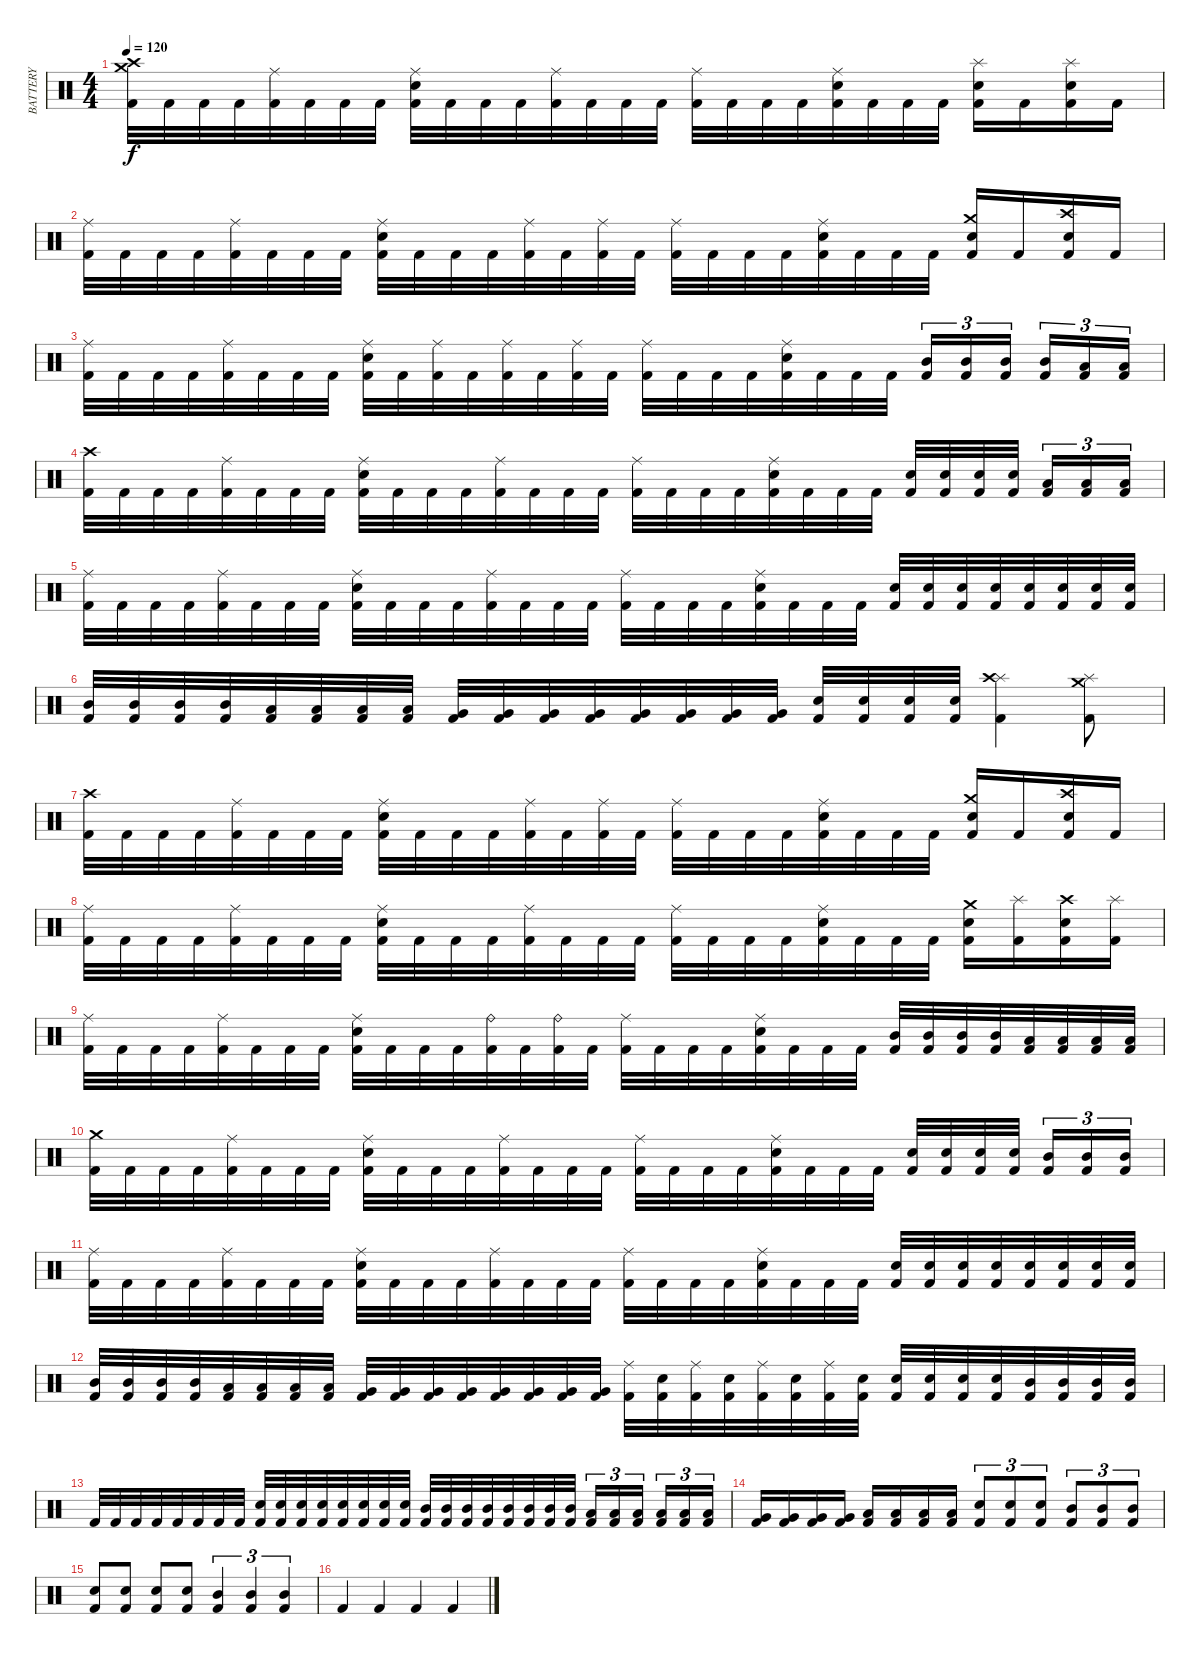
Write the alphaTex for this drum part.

\track ("BATTERY" "BATTERY") {instrument percussion}
\staff {score}
\articulation defaults
\ts (4 4)
\tempo 120
\clef neutral
\ks c
("Kick (hit) 2" "Crash medium (hit)" "Crash high (hit)").32{dy f} "Kick (hit) 2".32 "Kick (hit) 2".32 "Kick (hit) 2".32 ("Kick (hit) 2" "Ride (middle)").32 "Kick (hit) 2".32 "Kick (hit) 2".32 "Kick (hit) 2".32 ("Kick (hit) 2" "Snare (hit) 2" "Ride (middle)").32 "Kick (hit) 2".32 "Kick (hit) 2".32 "Kick (hit) 2".32 ("Kick (hit) 2" "Ride (middle)").32 "Kick (hit) 2".32 "Kick (hit) 2".32 "Kick (hit) 2".32 ("Kick (hit) 2" "Ride (middle)").32 "Kick (hit) 2".32 "Kick (hit) 2".32 "Kick (hit) 2".32 ("Kick (hit) 2" "Snare (hit) 2" "Ride (middle)").32 "Kick (hit) 2".32 "Kick (hit) 2".32 "Kick (hit) 2".32 ("Kick (hit) 2" "Snare (hit) 2" "Splash (hit)").16 "Kick (hit) 2".16 ("Kick (hit) 2" "Snare (hit) 2" "Splash (hit)").16 "Kick (hit) 2".16 |
("Kick (hit) 2" "Ride (middle)").32 "Kick (hit) 2".32 "Kick (hit) 2".32 "Kick (hit) 2".32 ("Kick (hit) 2" "Ride (middle)").32 "Kick (hit) 2".32 "Kick (hit) 2".32 "Kick (hit) 2".32 ("Kick (hit) 2" "Snare (hit) 2" "Ride (middle)").32 "Kick (hit) 2".32 "Kick (hit) 2".32 "Kick (hit) 2".32 ("Kick (hit) 2" "Ride (middle)").32 "Kick (hit) 2".32 ("Kick (hit) 2" "Ride (middle)").32 "Kick (hit) 2".32 ("Kick (hit) 2" "Ride (middle)").32 "Kick (hit) 2".32 "Kick (hit) 2".32 "Kick (hit) 2".32 ("Kick (hit) 2" "Snare (hit) 2" "Ride (middle)").32 "Kick (hit) 2".32 "Kick (hit) 2".32 "Kick (hit) 2".32 ("Kick (hit) 2" "Snare (hit) 2" "Crash medium (hit)").16 "Kick (hit) 2".16 ("Kick (hit) 2" "Snare (hit) 2" "Crash high (hit)").16 "Kick (hit) 2".16 |
("Kick (hit) 2" "Ride (middle)").32 "Kick (hit) 2".32 "Kick (hit) 2".32 "Kick (hit) 2".32 ("Kick (hit) 2" "Ride (middle)").32 "Kick (hit) 2".32 "Kick (hit) 2".32 "Kick (hit) 2".32 ("Kick (hit) 2" "Snare (hit) 2" "Ride (middle)").32 "Kick (hit) 2".32 ("Kick (hit) 2" "Ride (middle)").32 "Kick (hit) 2".32 ("Kick (hit) 2" "Ride (middle)").32 "Kick (hit) 2".32 ("Kick (hit) 2" "Ride (middle)").32 "Kick (hit) 2".32 ("Kick (hit) 2" "Ride (middle)").32 "Kick (hit) 2".32 "Kick (hit) 2".32 "Kick (hit) 2".32 ("Kick (hit) 2" "Snare (hit) 2" "Ride (middle)").32 "Kick (hit) 2".32 "Kick (hit) 2".32 "Kick (hit) 2".32 ("Kick (hit) 2" "Mid Tom (hit)").16{tu (3 2)} ("Kick (hit) 2" "Mid Tom (hit)").16{tu (3 2)} ("Kick (hit) 2" "Mid Tom (hit)").16{tu (3 2)} ("Kick (hit) 2" "Mid Tom (hit)").16{tu (3 2)} ("Kick (hit) 2" "Low Tom (hit)").16{tu (3 2)} ("Kick (hit) 2" "Low Tom (hit)").16{tu (3 2)} |
("Kick (hit) 2" "Crash high (hit)").32 "Kick (hit) 2".32 "Kick (hit) 2".32 "Kick (hit) 2".32 ("Kick (hit) 2" "Ride (middle)").32 "Kick (hit) 2".32 "Kick (hit) 2".32 "Kick (hit) 2".32 ("Kick (hit) 2" "Snare (hit) 2" "Ride (middle)").32 "Kick (hit) 2".32 "Kick (hit) 2".32 "Kick (hit) 2".32 ("Kick (hit) 2" "Ride (middle)").32 "Kick (hit) 2".32 "Kick (hit) 2".32 "Kick (hit) 2".32 ("Kick (hit) 2" "Ride (middle)").32 "Kick (hit) 2".32 "Kick (hit) 2".32 "Kick (hit) 2".32 ("Kick (hit) 2" "Snare (hit) 2" "Ride (middle)").32 "Kick (hit) 2".32 "Kick (hit) 2".32 "Kick (hit) 2".32 ("Kick (hit) 2" "Snare (hit) 2").32 ("Kick (hit) 2" "Snare (hit) 2").32 ("Kick (hit) 2" "Snare (hit) 2").32 ("Kick (hit) 2" "Snare (hit) 2").32 ("Kick (hit) 2" "Low Tom (hit)").16{tu (3 2)} ("Kick (hit) 2" "Low Tom (hit)").16{tu (3 2)} ("Kick (hit) 2" "Low Tom (hit)").16{tu (3 2)} |
("Kick (hit) 2" "Ride (middle)").32 "Kick (hit) 2".32 "Kick (hit) 2".32 "Kick (hit) 2".32 ("Kick (hit) 2" "Ride (middle)").32 "Kick (hit) 2".32 "Kick (hit) 2".32 "Kick (hit) 2".32 ("Kick (hit) 2" "Snare (hit) 2" "Ride (middle)").32 "Kick (hit) 2".32 "Kick (hit) 2".32 "Kick (hit) 2".32 ("Kick (hit) 2" "Ride (middle)").32 "Kick (hit) 2".32 "Kick (hit) 2".32 "Kick (hit) 2".32 ("Kick (hit) 2" "Ride (middle)").32 "Kick (hit) 2".32 "Kick (hit) 2".32 "Kick (hit) 2".32 ("Kick (hit) 2" "Snare (hit) 2" "Ride (middle)").32 "Kick (hit) 2".32 "Kick (hit) 2".32 "Kick (hit) 2".32 ("Kick (hit) 2" "Snare (hit) 2").32 ("Kick (hit) 2" "Snare (hit) 2").32 ("Kick (hit) 2" "Snare (hit) 2").32 ("Kick (hit) 2" "Snare (hit) 2").32 ("Kick (hit) 2" "Snare (hit) 2").32 ("Kick (hit) 2" "Snare (hit) 2").32 ("Kick (hit) 2" "Snare (hit) 2").32 ("Kick (hit) 2" "Snare (hit) 2").32 |
("Kick (hit) 2" "Mid Tom (hit)").32 ("Kick (hit) 2" "Mid Tom (hit)").32 ("Kick (hit) 2" "Mid Tom (hit)").32 ("Kick (hit) 2" "Mid Tom (hit)").32 ("Kick (hit) 2" "Low Tom (hit)").32 ("Kick (hit) 2" "Low Tom (hit)").32 ("Kick (hit) 2" "Low Tom (hit)").32 ("Kick (hit) 2" "Low Tom (hit)").32 ("Kick (hit) 2" "Very Low Tom (hit)").32 ("Kick (hit) 2" "Very Low Tom (hit)").32 ("Kick (hit) 2" "Very Low Tom (hit)").32 ("Kick (hit) 2" "Very Low Tom (hit)").32 ("Kick (hit) 2" "Very Low Tom (hit)").32 ("Kick (hit) 2" "Very Low Tom (hit)").32 ("Kick (hit) 2" "Very Low Tom (hit)").32 ("Kick (hit) 2" "Very Low Tom (hit)").32 ("Kick (hit) 2" "Snare (hit) 2").32 ("Kick (hit) 2" "Snare (hit) 2").32 ("Kick (hit) 2" "Snare (hit) 2").32 ("Kick (hit) 2" "Snare (hit) 2").32 ("Kick (hit) 2" "Splash (hit)" "Crash high (hit)").4 ("Kick (hit) 2" "Splash (hit)" "Crash medium (hit)").8 |
("Kick (hit) 2" "Crash high (hit)").32 "Kick (hit) 2".32 "Kick (hit) 2".32 "Kick (hit) 2".32 ("Kick (hit) 2" "Ride (middle)").32 "Kick (hit) 2".32 "Kick (hit) 2".32 "Kick (hit) 2".32 ("Kick (hit) 2" "Snare (hit) 2" "Ride (middle)").32 "Kick (hit) 2".32 "Kick (hit) 2".32 "Kick (hit) 2".32 ("Kick (hit) 2" "Ride (middle)").32 "Kick (hit) 2".32 ("Kick (hit) 2" "Ride (middle)").32 "Kick (hit) 2".32 ("Kick (hit) 2" "Ride (middle)").32 "Kick (hit) 2".32 "Kick (hit) 2".32 "Kick (hit) 2".32 ("Kick (hit) 2" "Snare (hit) 2" "Ride (middle)").32 "Kick (hit) 2".32 "Kick (hit) 2".32 "Kick (hit) 2".32 ("Kick (hit) 2" "Snare (hit) 2" "Crash medium (hit)").16 "Kick (hit) 2".16 ("Kick (hit) 2" "Snare (hit) 2" "Crash high (hit)").16 "Kick (hit) 2".16 |
("Kick (hit) 2" "Ride (middle)").32 "Kick (hit) 2".32 "Kick (hit) 2".32 "Kick (hit) 2".32 ("Kick (hit) 2" "Ride (middle)").32 "Kick (hit) 2".32 "Kick (hit) 2".32 "Kick (hit) 2".32 ("Kick (hit) 2" "Snare (hit) 2" "Ride (middle)").32 "Kick (hit) 2".32 "Kick (hit) 2".32 "Kick (hit) 2".32 ("Kick (hit) 2" "Ride (middle)").32 "Kick (hit) 2".32 "Kick (hit) 2".32 "Kick (hit) 2".32 ("Kick (hit) 2" "Ride (middle)").32 "Kick (hit) 2".32 "Kick (hit) 2".32 "Kick (hit) 2".32 ("Kick (hit) 2" "Snare (hit) 2" "Ride (middle)").32 "Kick (hit) 2".32 "Kick (hit) 2".32 "Kick (hit) 2".32 ("Kick (hit) 2" "Snare (hit) 2" "Crash medium (hit)").16 ("Kick (hit) 2" "Splash (hit)").16 ("Kick (hit) 2" "Snare (hit) 2" "Crash high (hit)").16 ("Kick (hit) 2" "Splash (hit)").16 |
("Kick (hit) 2" "Ride (middle)").32 "Kick (hit) 2".32 "Kick (hit) 2".32 "Kick (hit) 2".32 ("Kick (hit) 2" "Ride (middle)").32 "Kick (hit) 2".32 "Kick (hit) 2".32 "Kick (hit) 2".32 ("Kick (hit) 2" "Snare (hit) 2" "Ride (middle)").32 "Kick (hit) 2".32 "Kick (hit) 2".32 "Kick (hit) 2".32 ("Kick (hit) 2" "Ride (bell)").32 "Kick (hit) 2".32 ("Kick (hit) 2" "Ride (bell)").32 "Kick (hit) 2".32 ("Kick (hit) 2" "Ride (middle)").32 "Kick (hit) 2".32 "Kick (hit) 2".32 "Kick (hit) 2".32 ("Kick (hit) 2" "Snare (hit) 2" "Ride (middle)").32 "Kick (hit) 2".32 "Kick (hit) 2".32 "Kick (hit) 2".32 ("Kick (hit) 2" "Mid Tom (hit)").32 ("Kick (hit) 2" "Mid Tom (hit)").32 ("Kick (hit) 2" "Mid Tom (hit)").32 ("Kick (hit) 2" "Mid Tom (hit)").32 ("Kick (hit) 2" "Low Tom (hit)").32 ("Kick (hit) 2" "Low Tom (hit)").32 ("Kick (hit) 2" "Low Tom (hit)").32 ("Kick (hit) 2" "Low Tom (hit)").32 |
("Kick (hit) 2" "Crash medium (hit)").32 "Kick (hit) 2".32 "Kick (hit) 2".32 "Kick (hit) 2".32 ("Kick (hit) 2" "Ride (middle)").32 "Kick (hit) 2".32 "Kick (hit) 2".32 "Kick (hit) 2".32 ("Kick (hit) 2" "Snare (hit) 2" "Ride (middle)").32 "Kick (hit) 2".32 "Kick (hit) 2".32 "Kick (hit) 2".32 ("Kick (hit) 2" "Ride (middle)").32 "Kick (hit) 2".32 "Kick (hit) 2".32 "Kick (hit) 2".32 ("Kick (hit) 2" "Ride (middle)").32 "Kick (hit) 2".32 "Kick (hit) 2".32 "Kick (hit) 2".32 ("Kick (hit) 2" "Snare (hit) 2" "Ride (middle)").32 "Kick (hit) 2".32 "Kick (hit) 2".32 "Kick (hit) 2".32 ("Kick (hit) 2" "Snare (hit) 2").32 ("Kick (hit) 2" "Snare (hit) 2").32 ("Kick (hit) 2" "Snare (hit) 2").32 ("Kick (hit) 2" "Snare (hit) 2").32 ("Kick (hit) 2" "Mid Tom (hit)").16{tu (3 2)} ("Kick (hit) 2" "Mid Tom (hit)").16{tu (3 2)} ("Kick (hit) 2" "Mid Tom (hit)").16{tu (3 2)} |
("Kick (hit) 2" "Ride (middle)").32 "Kick (hit) 2".32 "Kick (hit) 2".32 "Kick (hit) 2".32 ("Kick (hit) 2" "Ride (middle)").32 "Kick (hit) 2".32 "Kick (hit) 2".32 "Kick (hit) 2".32 ("Kick (hit) 2" "Snare (hit) 2" "Ride (middle)").32 "Kick (hit) 2".32 "Kick (hit) 2".32 "Kick (hit) 2".32 ("Kick (hit) 2" "Ride (middle)").32 "Kick (hit) 2".32 "Kick (hit) 2".32 "Kick (hit) 2".32 ("Kick (hit) 2" "Ride (middle)").32 "Kick (hit) 2".32 "Kick (hit) 2".32 "Kick (hit) 2".32 ("Kick (hit) 2" "Snare (hit) 2" "Ride (middle)").32 "Kick (hit) 2".32 "Kick (hit) 2".32 "Kick (hit) 2".32 ("Kick (hit) 2" "Snare (hit) 2").32 ("Kick (hit) 2" "Snare (hit) 2").32 ("Kick (hit) 2" "Snare (hit) 2").32 ("Kick (hit) 2" "Snare (hit) 2").32 ("Kick (hit) 2" "Snare (hit) 2").32 ("Kick (hit) 2" "Snare (hit) 2").32 ("Kick (hit) 2" "Snare (hit) 2").32 ("Kick (hit) 2" "Snare (hit) 2").32 |
("Kick (hit) 2" "Mid Tom (hit)").32 ("Kick (hit) 2" "Mid Tom (hit)").32 ("Kick (hit) 2" "Mid Tom (hit)").32 ("Kick (hit) 2" "Mid Tom (hit)").32 ("Kick (hit) 2" "Low Tom (hit)").32 ("Kick (hit) 2" "Low Tom (hit)").32 ("Kick (hit) 2" "Low Tom (hit)").32 ("Kick (hit) 2" "Low Tom (hit)").32 ("Kick (hit) 2" "Very Low Tom (hit)").32 ("Kick (hit) 2" "Very Low Tom (hit)").32 ("Kick (hit) 2" "Very Low Tom (hit)").32 ("Kick (hit) 2" "Very Low Tom (hit)").32 ("Kick (hit) 2" "Very Low Tom (hit)").32 ("Kick (hit) 2" "Very Low Tom (hit)").32 ("Kick (hit) 2" "Very Low Tom (hit)").32 ("Kick (hit) 2" "Very Low Tom (hit)").32 ("Kick (hit) 2" "Ride (middle)").32 ("Kick (hit) 2" "Snare (hit) 2").32 ("Kick (hit) 2" "Ride (middle)").32 ("Kick (hit) 2" "Snare (hit) 2").32 ("Kick (hit) 2" "Ride (middle)").32 ("Kick (hit) 2" "Snare (hit) 2").32 ("Kick (hit) 2" "Ride (middle)").32 ("Kick (hit) 2" "Snare (hit) 2").32 ("Kick (hit) 2" "Snare (hit) 2").32 ("Kick (hit) 2" "Snare (hit) 2").32 ("Kick (hit) 2" "Snare (hit) 2").32 ("Kick (hit) 2" "Snare (hit) 2").32 ("Kick (hit) 2" "Mid Tom (hit)").32 ("Kick (hit) 2" "Mid Tom (hit)").32 ("Kick (hit) 2" "Mid Tom (hit)").32 ("Kick (hit) 2" "Mid Tom (hit)").32 |
"Kick (hit) 2".32 "Kick (hit) 2".32 "Kick (hit) 2".32 "Kick (hit) 2".32 "Kick (hit) 2".32 "Kick (hit) 2".32 "Kick (hit) 2".32 "Kick (hit) 2".32 ("Kick (hit) 2" "Snare (hit) 2").32 ("Kick (hit) 2" "Snare (hit) 2").32 ("Kick (hit) 2" "Snare (hit) 2").32 ("Kick (hit) 2" "Snare (hit) 2").32 ("Kick (hit) 2" "Snare (hit) 2").32 ("Kick (hit) 2" "Snare (hit) 2").32 ("Kick (hit) 2" "Snare (hit) 2").32 ("Kick (hit) 2" "Snare (hit) 2").32 ("Kick (hit) 2" "Mid Tom (hit)").32 ("Kick (hit) 2" "Mid Tom (hit)").32 ("Kick (hit) 2" "Mid Tom (hit)").32 ("Kick (hit) 2" "Mid Tom (hit)").32 ("Kick (hit) 2" "Mid Tom (hit)").32 ("Kick (hit) 2" "Mid Tom (hit)").32 ("Kick (hit) 2" "Mid Tom (hit)").32 ("Kick (hit) 2" "Mid Tom (hit)").32 ("Kick (hit) 2" "Low Tom (hit)").16{tu (3 2)} ("Kick (hit) 2" "Low Tom (hit)").16{tu (3 2)} ("Kick (hit) 2" "Low Tom (hit)").16{tu (3 2)} ("Kick (hit) 2" "Low Tom (hit)").16{tu (3 2)} ("Kick (hit) 2" "Low Tom (hit)").16{tu (3 2)} ("Kick (hit) 2" "Low Tom (hit)").16{tu (3 2)} |
("Kick (hit) 2" "Very Low Tom (hit)").16 ("Kick (hit) 2" "Very Low Tom (hit)").16 ("Kick (hit) 2" "Very Low Tom (hit)").16 ("Kick (hit) 2" "Very Low Tom (hit)").16 ("Kick (hit) 2" "Low Tom (hit)").16 ("Kick (hit) 2" "Low Tom (hit)").16 ("Kick (hit) 2" "Low Tom (hit)").16 ("Kick (hit) 2" "Low Tom (hit)").16 ("Kick (hit) 2" "Snare (hit) 2").8{tu (3 2)} ("Kick (hit) 2" "Snare (hit) 2").8{tu (3 2)} ("Kick (hit) 2" "Snare (hit) 2").8{tu (3 2)} ("Kick (hit) 2" "Mid Tom (hit)").8{tu (3 2)} ("Kick (hit) 2" "Mid Tom (hit)").8{tu (3 2)} ("Kick (hit) 2" "Mid Tom (hit)").8{tu (3 2)} |
("Kick (hit) 2" "Snare (hit) 2").8 ("Kick (hit) 2" "Snare (hit) 2").8 ("Kick (hit) 2" "Snare (hit) 2").8 ("Kick (hit) 2" "Snare (hit) 2").8 ("Kick (hit) 2" "Mid Tom (hit)").4{tu (3 2)} ("Kick (hit) 2" "Mid Tom (hit)").4{tu (3 2)} ("Kick (hit) 2" "Mid Tom (hit)").4{tu (3 2)} |
"Kick (hit) 2".4 "Kick (hit) 2".4 "Kick (hit) 2".4 "Kick (hit) 2".4
